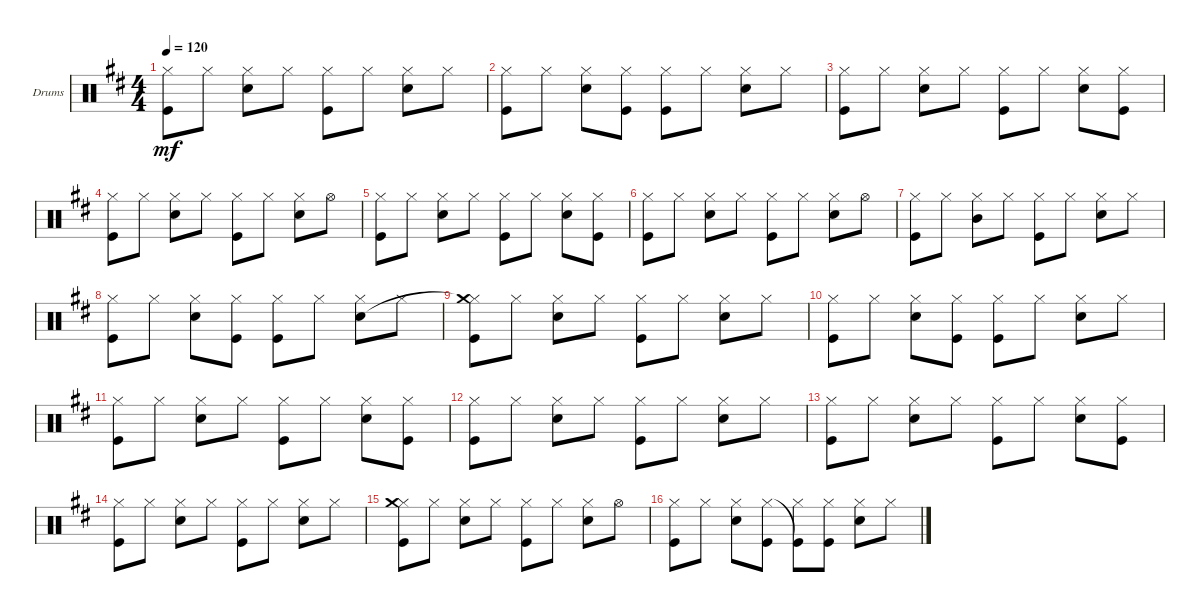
\defaultSystemsLayout 4
\bracketExtendMode groupsimilarinstruments
\firstSystemTrackNameOrientation horizontal
\otherSystemsTrackNameOrientation horizontal
\track ("Drumkit" "Drums") {instrument percussion}
\staff {score}
\articulation defaults
\ts (4 4)
\tempo 120
\clef neutral
\ks d
("Kick (hit)" "Hi-Hat (closed)").8{dy mf} "Hi-Hat (closed)".8 ("Hi-Hat (closed)" "Snare (hit) 2").8 "Hi-Hat (closed)".8 ("Hi-Hat (closed)" "Kick (hit)").8 "Hi-Hat (closed)".8 ("Hi-Hat (closed)" "Snare (hit) 2").8 "Hi-Hat (closed)".8 |
("Kick (hit)" "Hi-Hat (closed)").8 "Hi-Hat (closed)".8 ("Hi-Hat (closed)" "Snare (hit) 2").8 ("Kick (hit)" "Hi-Hat (closed)").8 ("Hi-Hat (closed)" "Kick (hit)").8 "Hi-Hat (closed)".8 ("Hi-Hat (closed)" "Snare (hit) 2").8 "Hi-Hat (closed)".8 |
("Hi-Hat (closed)" "Kick (hit)").8 "Hi-Hat (closed)".8 ("Hi-Hat (closed)" "Snare (hit) 2").8 "Hi-Hat (closed)".8 ("Hi-Hat (closed)" "Kick (hit)").8 "Hi-Hat (closed)".8 ("Hi-Hat (closed)" "Snare (hit) 2").8 ("Kick (hit)" "Hi-Hat (closed)").8 |
("Hi-Hat (closed)" "Kick (hit)").8 "Hi-Hat (closed)".8 ("Hi-Hat (closed)" "Snare (hit) 2").8 "Hi-Hat (closed)".8 ("Hi-Hat (closed)" "Kick (hit)").8 "Hi-Hat (closed)".8 ("Hi-Hat (closed)" "Snare (hit) 2").8 "Hi-Hat (open)".8 |
("Hi-Hat (closed)" "Kick (hit)").8 "Hi-Hat (closed)".8 ("Hi-Hat (closed)" "Snare (hit) 2").8 "Hi-Hat (closed)".8 ("Hi-Hat (closed)" "Kick (hit)").8 "Hi-Hat (closed)".8 ("Hi-Hat (closed)" "Snare (hit) 2").8 ("Hi-Hat (closed)" "Kick (hit)").8 |
("Hi-Hat (closed)" "Kick (hit)").8 "Hi-Hat (closed)".8 ("Hi-Hat (closed)" "Snare (hit) 2").8 "Hi-Hat (closed)".8 ("Hi-Hat (closed)" "Kick (hit)").8 "Hi-Hat (closed)".8 ("Hi-Hat (closed)" "Snare (hit) 2").8 "Hi-Hat (open)".8 |
("Hi-Hat (closed)" "Kick (hit)").8 "Hi-Hat (closed)".8 ("Hi-Hat (closed)" "Mid Tom (hit)").8 "Hi-Hat (closed)".8 ("Hi-Hat (closed)" "Kick (hit)").8 "Hi-Hat (closed)".8 ("Snare (hit) 2" "Hi-Hat (closed)").8 "Hi-Hat (closed)".8 |
("Hi-Hat (closed)" "Kick (hit)").8 "Hi-Hat (closed)".8 ("Hi-Hat (closed)" "Snare (hit) 2").8 ("Hi-Hat (closed)" "Kick (hit)").8 ("Hi-Hat (closed)" "Kick (hit)").8 "Hi-Hat (closed)".8 ("Hi-Hat (closed)" "Snare (hit) 2").8 "Hi-Hat (closed)".8 |
("Kick (hit)" "Hi-Hat (closed)"{t} "Crash medium (hit)").8 "Hi-Hat (closed)".8 ("Hi-Hat (closed)" "Snare (hit) 2").8 "Hi-Hat (closed)".8 ("Hi-Hat (closed)" "Kick (hit)").8 "Hi-Hat (closed)".8 ("Hi-Hat (closed)" "Snare (hit) 2").8 "Hi-Hat (closed)".8 |
("Kick (hit)" "Hi-Hat (closed)").8 "Hi-Hat (closed)".8 ("Hi-Hat (closed)" "Snare (hit) 2").8 ("Kick (hit)" "Hi-Hat (closed)").8 ("Hi-Hat (closed)" "Kick (hit)").8 "Hi-Hat (closed)".8 ("Hi-Hat (closed)" "Snare (hit) 2").8 "Hi-Hat (closed)".8 |
("Hi-Hat (closed)" "Kick (hit)").8 "Hi-Hat (closed)".8 ("Hi-Hat (closed)" "Snare (hit) 2").8 "Hi-Hat (closed)".8 ("Hi-Hat (closed)" "Kick (hit)").8 "Hi-Hat (closed)".8 ("Hi-Hat (closed)" "Snare (hit) 2").8 ("Kick (hit)" "Hi-Hat (closed)").8 |
("Hi-Hat (closed)" "Kick (hit)").8 "Hi-Hat (closed)".8 ("Hi-Hat (closed)" "Snare (hit) 2").8 "Hi-Hat (closed)".8 ("Hi-Hat (closed)" "Kick (hit)").8 "Hi-Hat (closed)".8 ("Hi-Hat (closed)" "Snare (hit) 2").8 "Hi-Hat (closed)".8 |
("Hi-Hat (closed)" "Kick (hit)").8 "Hi-Hat (closed)".8 ("Hi-Hat (closed)" "Snare (hit) 2").8 "Hi-Hat (closed)".8 ("Hi-Hat (closed)" "Kick (hit)").8 "Hi-Hat (closed)".8 ("Hi-Hat (closed)" "Snare (hit) 2").8 ("Hi-Hat (closed)" "Kick (hit)").8 |
("Hi-Hat (closed)" "Kick (hit)").8 "Hi-Hat (closed)".8 ("Hi-Hat (closed)" "Snare (hit) 2").8 "Hi-Hat (closed)".8 ("Hi-Hat (closed)" "Kick (hit)").8 "Hi-Hat (closed)".8 ("Hi-Hat (closed)" "Snare (hit) 2").8 "Hi-Hat (closed)".8 |
("Hi-Hat (closed)" "Crash medium (hit)" "Kick (hit)").8 "Hi-Hat (closed)".8 ("Hi-Hat (closed)" "Snare (hit) 2").8 "Hi-Hat (closed)".8 ("Hi-Hat (closed)" "Kick (hit)").8 "Hi-Hat (closed)".8 ("Hi-Hat (closed)" "Snare (hit) 2").8 "Hi-Hat (open)".8 |
("Hi-Hat (closed)" "Kick (hit)").8 "Hi-Hat (closed)".8 ("Hi-Hat (closed)" "Snare (hit) 2").8 ("Kick (hit)" "Hi-Hat (closed)").8 ("Hi-Hat (closed)" "Kick (hit)"{t}).8 ("Kick (hit)" "Hi-Hat (closed)").8 ("Hi-Hat (closed)" "Snare (hit) 2").8 "Hi-Hat (closed)".8
